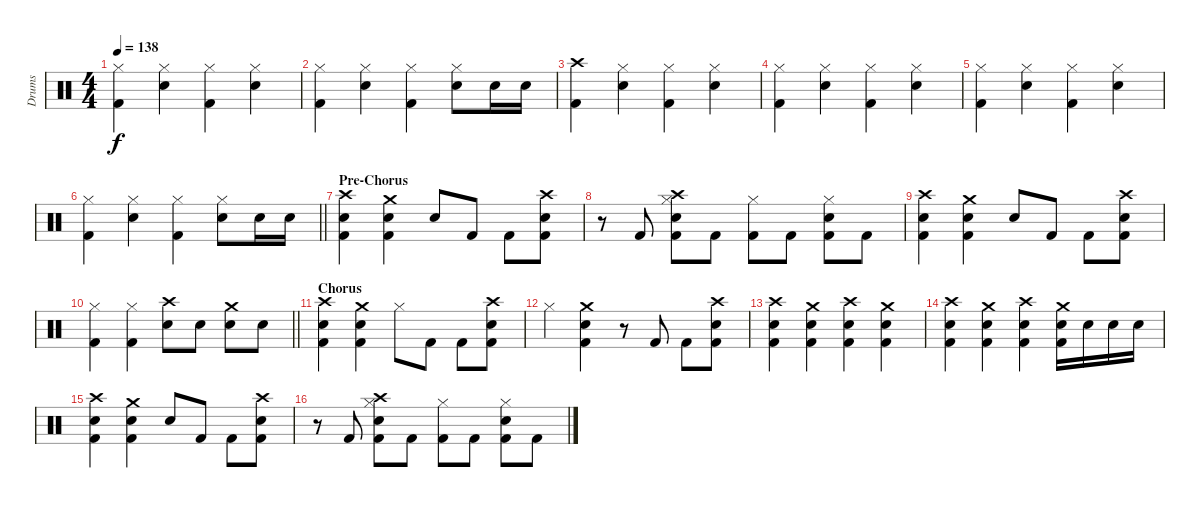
\track ("Drums" "Drums") {instrument percussion}
\staff {score}
\articulation defaults
\ts (4 4)
\tempo 138
\clef neutral
\ks c
("Hi-Hat (closed)" "Kick (hit) 2").4{dy f} ("Snare (hit) 2" "Hi-Hat (closed)").4 ("Hi-Hat (closed)" "Kick (hit) 2").4 ("Snare (hit) 2" "Hi-Hat (closed)").4 |
("Hi-Hat (closed)" "Kick (hit) 2").4 ("Snare (hit) 2" "Hi-Hat (closed)").4 ("Hi-Hat (closed)" "Kick (hit) 2").4 ("Snare (hit) 2" "Hi-Hat (closed)").8 "Snare (hit) 2".16 "Snare (hit) 2".16 |
("Crash high (hit)" "Kick (hit) 2").4 ("Snare (hit) 2" "Hi-Hat (closed)").4 ("Hi-Hat (closed)" "Kick (hit) 2").4 ("Snare (hit) 2" "Hi-Hat (closed)").4 |
("Hi-Hat (closed)" "Kick (hit) 2").4 ("Snare (hit) 2" "Hi-Hat (closed)").4 ("Hi-Hat (closed)" "Kick (hit) 2").4 ("Snare (hit) 2" "Hi-Hat (closed)").4 |
("Hi-Hat (closed)" "Kick (hit) 2").4 ("Snare (hit) 2" "Hi-Hat (closed)").4 ("Hi-Hat (closed)" "Kick (hit) 2").4 ("Snare (hit) 2" "Hi-Hat (closed)").4 |
\barLineRight lightlight
("Hi-Hat (closed)" "Kick (hit) 2").4 ("Snare (hit) 2" "Hi-Hat (closed)").4 ("Hi-Hat (closed)" "Kick (hit) 2").4 ("Snare (hit) 2" "Hi-Hat (closed)").8 "Snare (hit) 2".16 "Snare (hit) 2".16 |
\section ("" "Pre-Chorus")
("Crash high (hit)" "Snare (hit) 2" "Kick (hit) 2").4 ("Crash medium (hit)" "Snare (hit) 2" "Kick (hit) 2").4 "Snare (hit) 2".8 "Kick (hit) 2".8 "Kick (hit) 2".8 ("Crash high (hit)" "Snare (hit) 2" "Kick (hit) 2").8 |
r.8 "Kick (hit) 2".8 ("Crash high (hit)" "Snare (hit) 2" "Hi-Hat (closed)" "Kick (hit) 2").8 "Kick (hit) 2".8 ("Hi-Hat (closed)" "Kick (hit) 2").8 "Kick (hit) 2".8 ("Snare (hit) 2" "Hi-Hat (closed)" "Kick (hit) 2").8 "Kick (hit) 2".8 |
("Crash high (hit)" "Snare (hit) 2" "Kick (hit) 2").4 ("Crash medium (hit)" "Snare (hit) 2" "Kick (hit) 2").4 "Snare (hit) 2".8 "Kick (hit) 2".8 "Kick (hit) 2".8 ("Crash high (hit)" "Snare (hit) 2" "Kick (hit) 2").8 |
\barLineRight lightlight
("Hi-Hat (closed)" "Kick (hit) 2").4 ("Hi-Hat (closed)" "Kick (hit) 2").4 ("Crash high (hit)" "Snare (hit) 2").8 "Snare (hit) 2".8 ("Crash medium (hit)" "Snare (hit) 2").8 "Snare (hit) 2".8 |
\section ("" "Chorus")
("Crash high (hit)" "Snare (hit) 2" "Kick (hit) 2").4 ("Crash medium (hit)" "Snare (hit) 2" "Kick (hit) 2").4 "Hi-Hat (closed)".8 "Kick (hit) 2".8 "Kick (hit) 2".8 ("Crash high (hit)" "Snare (hit) 2" "Kick (hit) 2").8 |
"Hi-Hat (closed)".4 ("Crash medium (hit)" "Snare (hit) 2" "Kick (hit) 2").4 r.8 "Kick (hit) 2".8 "Kick (hit) 2".8 ("Crash high (hit)" "Snare (hit) 2" "Kick (hit) 2").8 |
("Crash high (hit)" "Snare (hit) 2" "Kick (hit) 2").4 ("Crash medium (hit)" "Snare (hit) 2" "Kick (hit) 2").4 ("Crash high (hit)" "Snare (hit) 2" "Kick (hit) 2").4 ("Crash medium (hit)" "Snare (hit) 2" "Kick (hit) 2").4 |
("Crash high (hit)" "Snare (hit) 2" "Kick (hit) 2").4 ("Crash medium (hit)" "Snare (hit) 2" "Kick (hit) 2").4 ("Crash high (hit)" "Snare (hit) 2" "Kick (hit) 2").4 ("Crash medium (hit)" "Snare (hit) 2" "Kick (hit) 2").16 "Snare (hit) 2".16 "Snare (hit) 2".16 "Snare (hit) 2".16 |
("Crash high (hit)" "Snare (hit) 2" "Kick (hit) 2").4 ("Crash medium (hit)" "Snare (hit) 2" "Kick (hit) 2").4 "Snare (hit) 2".8 "Kick (hit) 2".8 "Kick (hit) 2".8 ("Crash high (hit)" "Snare (hit) 2" "Kick (hit) 2").8 |
r.8 "Kick (hit) 2".8 ("Crash high (hit)" "Snare (hit) 2" "Hi-Hat (closed)" "Kick (hit) 2").8 "Kick (hit) 2".8 ("Hi-Hat (closed)" "Kick (hit) 2").8 "Kick (hit) 2".8 ("Snare (hit) 2" "Hi-Hat (closed)" "Kick (hit) 2").8 "Kick (hit) 2".8
